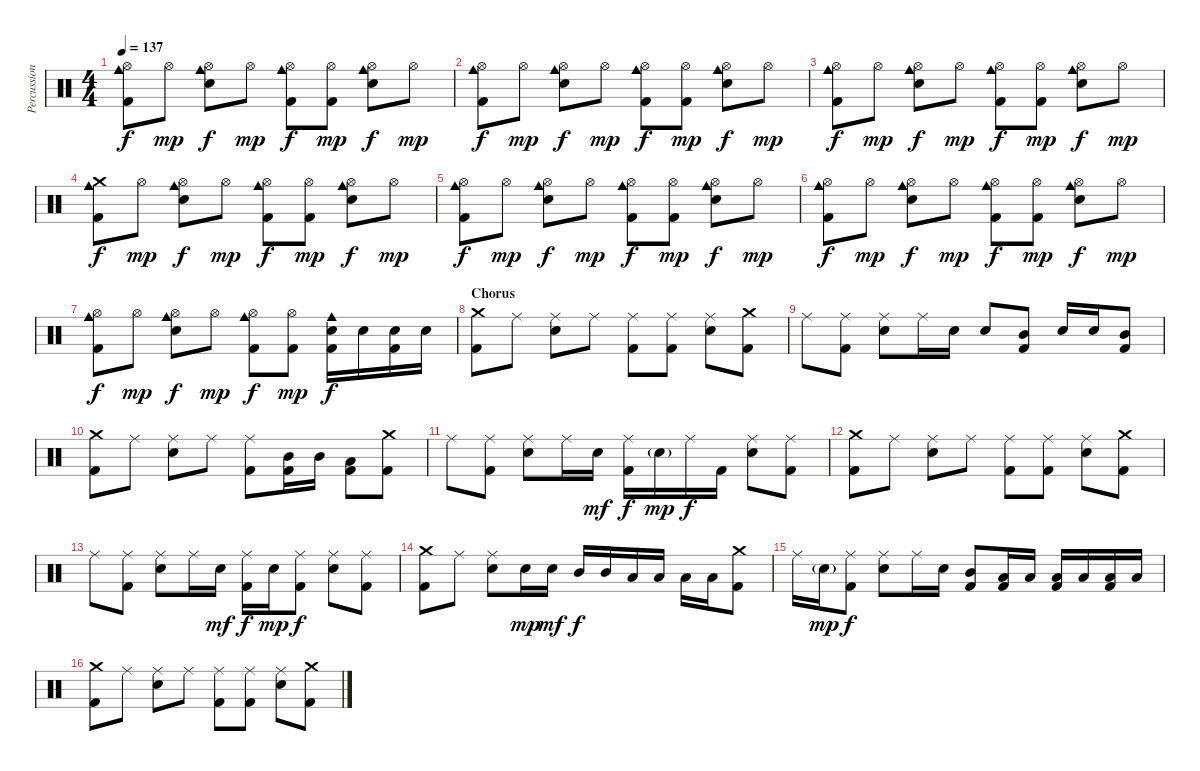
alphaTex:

\track ("Percussion" "Percussion") {instrument percussion}
\staff {score}
\articulation defaults
\ts (4 4)
\tempo 137
\clef neutral
\ks c
("Hi-Hat (open)" "Cowbell medium (hit)" "Kick (hit) 2").8{dy f} "Hi-Hat (open)".8{dy mp} ("Hi-Hat (open)" "Cowbell medium (hit)" "Electric Snare (hit)").8{dy f} "Hi-Hat (open)".8{dy mp} ("Hi-Hat (open)" "Cowbell medium (hit)" "Kick (hit) 2").8{dy f} ("Hi-Hat (open)" "Kick (hit) 2").8{dy mp} ("Hi-Hat (open)" "Cowbell medium (hit)" "Electric Snare (hit)").8{dy f} "Hi-Hat (open)".8{dy mp} |
("Hi-Hat (open)" "Cowbell medium (hit)" "Kick (hit) 2").8{dy f} "Hi-Hat (open)".8{dy mp} ("Hi-Hat (open)" "Cowbell medium (hit)" "Electric Snare (hit)").8{dy f} "Hi-Hat (open)".8{dy mp} ("Hi-Hat (open)" "Cowbell medium (hit)" "Kick (hit) 2").8{dy f} ("Hi-Hat (open)" "Kick (hit) 2").8{dy mp} ("Hi-Hat (open)" "Cowbell medium (hit)" "Electric Snare (hit)").8{dy f} "Hi-Hat (open)".8{dy mp} |
("Hi-Hat (open)" "Cowbell medium (hit)" "Kick (hit) 2").8{dy f} "Hi-Hat (open)".8{dy mp} ("Hi-Hat (open)" "Cowbell medium (hit)" "Electric Snare (hit)").8{dy f} "Hi-Hat (open)".8{dy mp} ("Hi-Hat (open)" "Cowbell medium (hit)" "Kick (hit) 2").8{dy f} ("Hi-Hat (open)" "Kick (hit) 2").8{dy mp} ("Hi-Hat (open)" "Cowbell medium (hit)" "Electric Snare (hit)").8{dy f} "Hi-Hat (open)".8{dy mp} |
("Crash medium (hit)" "Cowbell medium (hit)" "Kick (hit) 2").8{dy f} "Hi-Hat (open)".8{dy mp} ("Hi-Hat (open)" "Cowbell medium (hit)" "Electric Snare (hit)").8{dy f} "Hi-Hat (open)".8{dy mp} ("Hi-Hat (open)" "Cowbell medium (hit)" "Kick (hit) 2").8{dy f} ("Hi-Hat (open)" "Kick (hit) 2").8{dy mp} ("Hi-Hat (open)" "Cowbell medium (hit)" "Electric Snare (hit)").8{dy f} "Hi-Hat (open)".8{dy mp} |
("Hi-Hat (open)" "Cowbell medium (hit)" "Kick (hit) 2").8{dy f} "Hi-Hat (open)".8{dy mp} ("Hi-Hat (open)" "Cowbell medium (hit)" "Electric Snare (hit)").8{dy f} "Hi-Hat (open)".8{dy mp} ("Hi-Hat (open)" "Cowbell medium (hit)" "Kick (hit) 2").8{dy f} ("Hi-Hat (open)" "Kick (hit) 2").8{dy mp} ("Hi-Hat (open)" "Cowbell medium (hit)" "Electric Snare (hit)").8{dy f} "Hi-Hat (open)".8{dy mp} |
("Hi-Hat (open)" "Cowbell medium (hit)" "Kick (hit) 2").8{dy f} "Hi-Hat (open)".8{dy mp} ("Hi-Hat (open)" "Cowbell medium (hit)" "Electric Snare (hit)").8{dy f} "Hi-Hat (open)".8{dy mp} ("Hi-Hat (open)" "Cowbell medium (hit)" "Kick (hit) 2").8{dy f} ("Hi-Hat (open)" "Kick (hit) 2").8{dy mp} ("Hi-Hat (open)" "Cowbell medium (hit)" "Electric Snare (hit)").8{dy f} "Hi-Hat (open)".8{dy mp} |
("Hi-Hat (open)" "Cowbell medium (hit)" "Kick (hit) 2").8{dy f} "Hi-Hat (open)".8{dy mp} ("Hi-Hat (open)" "Cowbell medium (hit)" "Electric Snare (hit)").8{dy f} "Hi-Hat (open)".8{dy mp} ("Hi-Hat (open)" "Cowbell medium (hit)" "Kick (hit) 2").8{dy f} ("Hi-Hat (open)" "Kick (hit) 2").8{dy mp} ("Cowbell medium (hit)" "Electric Snare (hit)" "Kick (hit) 2").16{dy f} "Electric Snare (hit)".16 ("Electric Snare (hit)" "Kick (hit) 2").16 "Electric Snare (hit)".16 |
\section ("" "Chorus")
("Crash medium (hit)" "Kick (hit) 2").8 "Ride (middle)".8 ("Ride (middle)" "Electric Snare (hit)").8 "Ride (middle)".8 ("Ride (middle)" "Kick (hit) 2").8 ("Ride (middle)" "Kick (hit) 2").8 ("Ride (middle)" "Electric Snare (hit)").8 ("Crash medium (hit)" "Kick (hit) 2").8 |
"Ride (middle)".8 ("Ride (middle)" "Kick (hit) 2").8 ("Ride (middle)" "Electric Snare (hit)").8 "Ride (middle)".16 "Electric Snare (hit)".16 "Electric Snare (hit)".8 ("Mid Tom (hit)" "Kick (hit) 2").8 "Electric Snare (hit)".16 "Electric Snare (hit)".16 ("Mid Tom (hit)" "Kick (hit) 2").8 |
("Crash medium (hit)" "Kick (hit) 2").8 "Ride (middle)".8 ("Ride (middle)" "Electric Snare (hit)").8 "Ride (middle)".8 ("Ride (middle)" "Kick (hit) 2").8 ("Mid Tom (hit)" "Kick (hit) 2").16 "Mid Tom (hit)".16 ("Low Tom (hit)" "Kick (hit) 2").8 ("Crash medium (hit)" "Kick (hit) 2").8 |
"Ride (middle)".8 ("Ride (middle)" "Kick (hit) 2").8 ("Ride (middle)" "Electric Snare (hit)").8 "Ride (middle)".16 "Electric Snare (hit)".16{dy mf} ("Ride (middle)" "Kick (hit) 2").16{dy f} "Electric Snare (hit)"{g}.16{dy mp} "Ride (middle)".16{dy f} "Kick (hit) 2".16 ("Ride (middle)" "Electric Snare (hit)").8 ("Ride (middle)" "Kick (hit) 2").8 |
("Crash medium (hit)" "Kick (hit) 2").8 "Ride (middle)".8 ("Ride (middle)" "Electric Snare (hit)").8 "Ride (middle)".8 ("Ride (middle)" "Kick (hit) 2").8 ("Ride (middle)" "Kick (hit) 2").8 ("Ride (middle)" "Electric Snare (hit)").8 ("Crash medium (hit)" "Kick (hit) 2").8 |
"Ride (middle)".8 ("Ride (middle)" "Kick (hit) 2").8 ("Ride (middle)" "Electric Snare (hit)").8 "Ride (middle)".16 "Electric Snare (hit)".16{dy mf} ("Ride (middle)" "Kick (hit) 2").16{dy f} "Electric Snare (hit)".16{dy mp} ("Ride (middle)" "Kick (hit) 2").8{dy f} ("Ride (middle)" "Electric Snare (hit)").8 ("Ride (middle)" "Kick (hit) 2").8 |
("Crash medium (hit)" "Kick (hit) 2").8 "Ride (middle)".8 ("Ride (middle)" "Electric Snare (hit)").8 "Electric Snare (hit)".16{dy mp} "Electric Snare (hit)".16{dy mf} "Mid Tom (hit)".16{dy f} "Mid Tom (hit)".16 "Low Tom (hit)".16 "Low Tom (hit)".16 "Low Floor Tom (hit)".16 "Low Floor Tom (hit)".16 ("Crash medium (hit)" "Kick (hit) 2").8 |
"Ride (middle)".16 "Electric Snare (hit)"{g}.16{dy mp} ("Ride (middle)" "Kick (hit) 2").8{dy f} ("Ride (middle)" "Electric Snare (hit)").8 "Ride (middle)".16 "Electric Snare (hit)".16 ("Mid Tom (hit)" "Kick (hit) 2").8 ("Low Tom (hit)" "Kick (hit) 2").16 "Low Tom (hit)".16 ("Low Floor Tom (hit)" "Kick (hit) 2").16 "Low Floor Tom (hit)".16 ("Low Floor Tom (hit)" "Kick (hit) 2").16 "Low Floor Tom (hit)".16 |
("Crash medium (hit)" "Kick (hit) 2").8 "Ride (middle)".8 ("Ride (middle)" "Electric Snare (hit)").8 "Ride (middle)".8 ("Ride (middle)" "Kick (hit) 2").8 ("Ride (middle)" "Kick (hit) 2").8 ("Ride (middle)" "Electric Snare (hit)").8 ("Crash medium (hit)" "Kick (hit) 2").8
